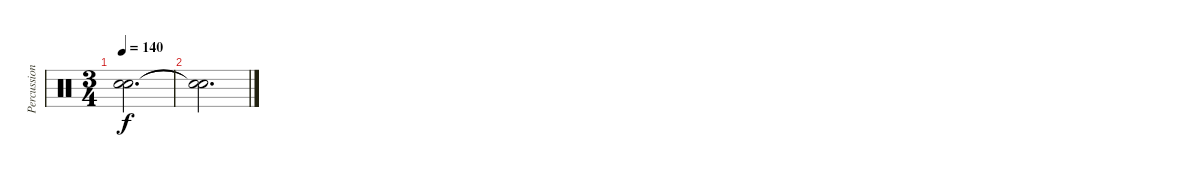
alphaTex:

\track ("Percussions" "Percussion") {instrument percussion}
\staff {score}
\articulation defaults
\ts (3 4)
\tempo 140
\clef neutral
\ks c
("Snare (hit)"{t} "Snare (hit)"{t}).2{d dy f} |
("Snare (hit)"{t} "Snare (hit)"{t}).2{d}
